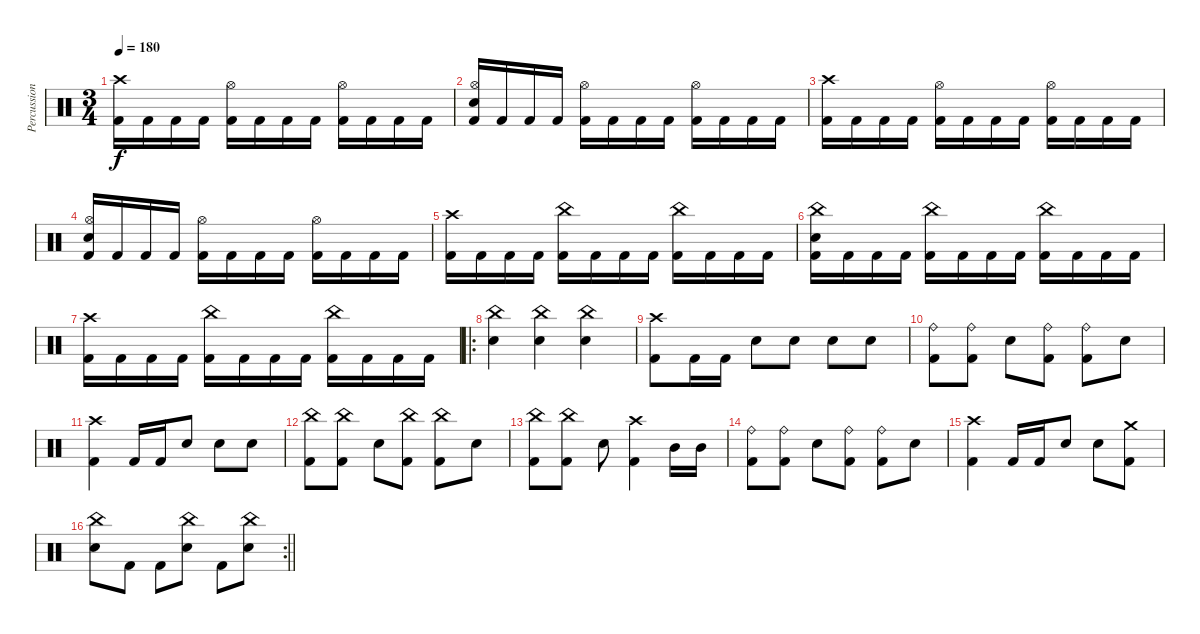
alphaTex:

\track ("Percussions" "Percussion") {instrument percussion}
\staff {score}
\articulation defaults
\ts (3 4)
\tempo 180
\clef neutral
\ks c
("Crash high (hit)" "Kick (hit) 2").16{dy f} "Kick (hit) 2".16 "Kick (hit) 2".16 "Kick (hit) 2".16 ("Hi-Hat (open)" "Kick (hit) 2").16 "Kick (hit) 2".16 "Kick (hit) 2".16 "Kick (hit) 2".16 ("Hi-Hat (open)" "Kick (hit) 2").16 "Kick (hit) 2".16 "Kick (hit) 2".16 "Kick (hit) 2".16 |
("Hi-Hat (open)" "Electric Snare (hit)" "Kick (hit) 2").16 "Kick (hit) 2".16 "Kick (hit) 2".16 "Kick (hit) 2".16 ("Hi-Hat (open)" "Kick (hit) 2").16 "Kick (hit) 2".16 "Kick (hit) 2".16 "Kick (hit) 2".16 ("Hi-Hat (open)" "Kick (hit) 2").16 "Kick (hit) 2".16 "Kick (hit) 2".16 "Kick (hit) 2".16 |
("Crash high (hit)" "Kick (hit) 2").16 "Kick (hit) 2".16 "Kick (hit) 2".16 "Kick (hit) 2".16 ("Hi-Hat (open)" "Kick (hit) 2").16 "Kick (hit) 2".16 "Kick (hit) 2".16 "Kick (hit) 2".16 ("Hi-Hat (open)" "Kick (hit) 2").16 "Kick (hit) 2".16 "Kick (hit) 2".16 "Kick (hit) 2".16 |
("Hi-Hat (open)" "Electric Snare (hit)" "Kick (hit) 2").16 "Kick (hit) 2".16 "Kick (hit) 2".16 "Kick (hit) 2".16 ("Hi-Hat (open)" "Kick (hit) 2").16 "Kick (hit) 2".16 "Kick (hit) 2".16 "Kick (hit) 2".16 ("Hi-Hat (open)" "Kick (hit) 2").16 "Kick (hit) 2".16 "Kick (hit) 2".16 "Kick (hit) 2".16 |
("Crash high (hit)" "Kick (hit) 2").16 "Kick (hit) 2".16 "Kick (hit) 2".16 "Kick (hit) 2".16 ("China (hit)" "Kick (hit) 2").16 "Kick (hit) 2".16 "Kick (hit) 2".16 "Kick (hit) 2".16 ("China (hit)" "Kick (hit) 2").16 "Kick (hit) 2".16 "Kick (hit) 2".16 "Kick (hit) 2".16 |
("China (hit)" "Electric Snare (hit)" "Kick (hit) 2").16 "Kick (hit) 2".16 "Kick (hit) 2".16 "Kick (hit) 2".16 ("China (hit)" "Kick (hit) 2").16 "Kick (hit) 2".16 "Kick (hit) 2".16 "Kick (hit) 2".16 ("China (hit)" "Kick (hit) 2").16 "Kick (hit) 2".16 "Kick (hit) 2".16 "Kick (hit) 2".16 |
("Crash high (hit)" "Kick (hit) 2").16 "Kick (hit) 2".16 "Kick (hit) 2".16 "Kick (hit) 2".16 ("China (hit)" "Kick (hit) 2").16 "Kick (hit) 2".16 "Kick (hit) 2".16 "Kick (hit) 2".16 ("China (hit)" "Kick (hit) 2").16 "Kick (hit) 2".16 "Kick (hit) 2".16 "Kick (hit) 2".16 |
\ro
("China (hit)" "Electric Snare (hit)").4 ("China (hit)" "Electric Snare (hit)").4 ("China (hit)" "Electric Snare (hit)").4 |
("Crash high (hit)" "Kick (hit) 2").8 "Kick (hit) 2".16 "Kick (hit) 2".16 "Electric Snare (hit)".8 "Electric Snare (hit)".8 "Electric Snare (hit)".8 "Electric Snare (hit)".8 |
("Ride (bell)" "Kick (hit) 2").8 ("Ride (bell)" "Kick (hit) 2").8 "Electric Snare (hit)".8 ("Ride (bell)" "Kick (hit) 2").8 ("Ride (bell)" "Kick (hit) 2").8 "Electric Snare (hit)".8 |
("Crash high (hit)" "Kick (hit) 2").4 "Kick (hit) 2".16 "Kick (hit) 2".16 "Electric Snare (hit)".8 "Electric Snare (hit)".8 "Electric Snare (hit)".8 |
("China (hit)" "Kick (hit) 2").8 ("China (hit)" "Kick (hit) 2").8 "Electric Snare (hit)".8 ("China (hit)" "Kick (hit) 2").8 ("China (hit)" "Kick (hit) 2").8 "Electric Snare (hit)".8 |
("China (hit)" "Kick (hit) 2").8 ("China (hit)" "Kick (hit) 2").8 "Electric Snare (hit)".8 ("Crash high (hit)" "Kick (hit) 2").4 "Mid Tom (hit)".16 "Mid Tom (hit)".16 |
("Ride (bell)" "Kick (hit) 2").8 ("Ride (bell)" "Kick (hit) 2").8 "Electric Snare (hit)".8 ("Ride (bell)" "Kick (hit) 2").8 ("Ride (bell)" "Kick (hit) 2").8 "Electric Snare (hit)".8 |
("Crash high (hit)" "Kick (hit) 2").4 "Kick (hit) 2".16 "Kick (hit) 2".16 "Electric Snare (hit)".8 "Electric Snare (hit)".8 ("Crash medium (hit)" "Kick (hit) 2").8 |
\rc 2
\barLineRight lightlight
("China (hit)" "Electric Snare (hit)").8 "Kick (hit) 2".8 "Kick (hit) 2".8 ("China (hit)" "Electric Snare (hit)").8 "Kick (hit) 2".8 ("China (hit)" "Electric Snare (hit)").8
